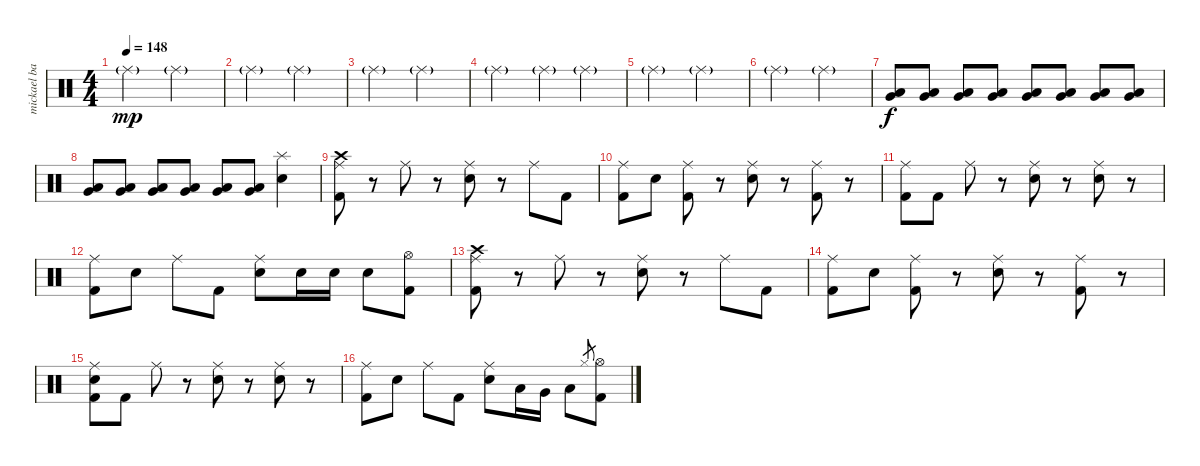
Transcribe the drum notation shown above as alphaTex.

\track ("mickael barker drums" "mickael ba") {instrument percussion}
\staff {score}
\articulation defaults
\ts (4 4)
\tempo 148
\clef neutral
\ks c "Ride (middle)"{g}.2{dy mp} "Ride (middle)"{g}.2
|
"Ride (middle)"{g}.2 "Ride (middle)"{g}.2 |
"Ride (middle)"{g}.2 "Ride (middle)"{g}.2 |
"Ride (middle)"{g}.2 "Ride (middle)"{g}.4 "Ride (middle)"{g}.4 |
"Ride (middle)"{g}.2 "Ride (middle)"{g}.2 |
"Ride (middle)"{g}.2 "Ride (middle)"{g}.2 |
("Low Floor Tom (hit)" "Very Low Tom (hit)").8{dy f} ("Low Floor Tom (hit)" "Very Low Tom (hit)").8 ("Low Floor Tom (hit)" "Very Low Tom (hit)").8 ("Low Floor Tom (hit)" "Very Low Tom (hit)").8 ("Low Floor Tom (hit)" "Very Low Tom (hit)").8 ("Low Floor Tom (hit)" "Very Low Tom (hit)").8 ("Low Floor Tom (hit)" "Very Low Tom (hit)").8 ("Low Floor Tom (hit)" "Very Low Tom (hit)").8 |
("Low Floor Tom (hit)" "Very Low Tom (hit)").8 ("Low Floor Tom (hit)" "Very Low Tom (hit)").8 ("Low Floor Tom (hit)" "Very Low Tom (hit)").8 ("Low Floor Tom (hit)" "Very Low Tom (hit)").8 ("Low Floor Tom (hit)" "Very Low Tom (hit)").8 ("Low Floor Tom (hit)" "Very Low Tom (hit)").8 ("Splash (hit)" "Snare (hit) 2").4 |
("Crash high (hit)" "Ride (middle)" "Kick (hit) 2").8 r.8 "Ride (middle)".8 r.8 ("Ride (middle)" "Snare (hit) 2").8 r.8 "Ride (middle)".8 "Kick (hit) 2".8 |
("Ride (middle)" "Kick (hit) 2").8 "Snare (hit) 2".8 ("Ride (middle)" "Kick (hit) 2").8 r.8 ("Ride (middle)" "Snare (hit) 2").8 r.8 ("Ride (middle)" "Kick (hit) 2").8 r.8 |
("Ride (middle)" "Kick (hit) 2").8 "Kick (hit) 2".8 "Ride (middle)".8 r.8 ("Ride (middle)" "Snare (hit) 2").8 r.8 ("Ride (middle)" "Snare (hit) 2").8 r.8 |
("Ride (middle)" "Kick (hit) 2").8 "Snare (hit) 2".8 "Ride (middle)".8 "Kick (hit) 2".8 ("Ride (middle)" "Snare (hit) 2").8 "Snare (hit) 2".16 "Snare (hit) 2".16 "Snare (hit) 2".8 ("Hi-Hat (open)" "Kick (hit) 2").8 |
("Crash high (hit)" "Ride (middle)" "Kick (hit) 2").8 r.8 "Ride (middle)".8 r.8 ("Ride (middle)" "Snare (hit) 2").8 r.8 "Ride (middle)".8 "Kick (hit) 2".8 |
("Ride (middle)" "Kick (hit) 2").8 "Snare (hit) 2".8 ("Ride (middle)" "Kick (hit) 2").8 r.8 ("Ride (middle)" "Snare (hit) 2").8 r.8 ("Ride (middle)" "Kick (hit) 2").8 r.8 |
("Ride (middle)" "Snare (hit) 2" "Kick (hit) 2").8 "Kick (hit) 2".8 "Ride (middle)".8 r.8 ("Ride (middle)" "Snare (hit) 2").8 r.8 ("Ride (middle)" "Snare (hit) 2").8 r.8 |
("Ride (middle)" "Kick (hit) 2").8 "Snare (hit) 2".8 "Ride (middle)".8 "Kick (hit) 2".8 ("Ride (middle)" "Snare (hit) 2").8 "Low Tom (hit)".16 "Very Low Tom (hit)".16 "Low Floor Tom (hit)".8 "Hi-Hat (closed)".8{gr} ("Hi-Hat (open)" "Kick (hit) 2").8
